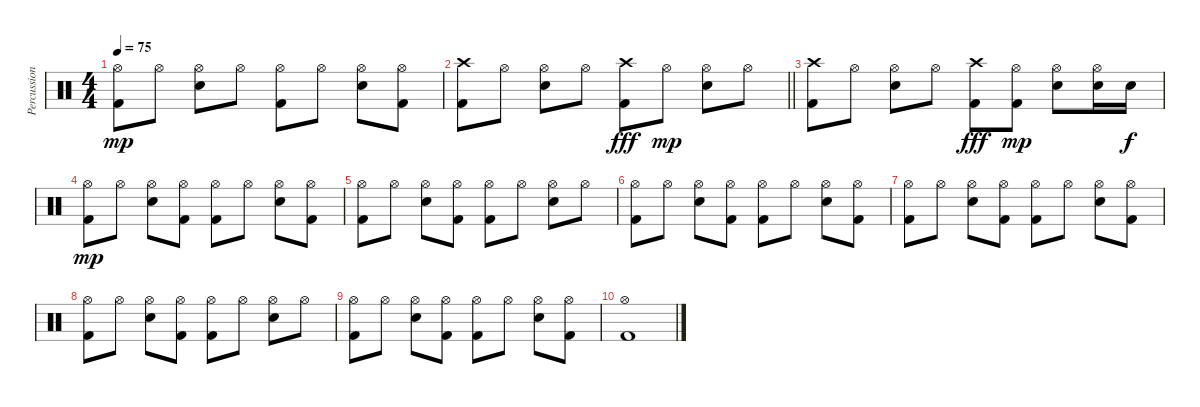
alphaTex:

\track ("Percussion" "Percussion") {instrument percussion}
\staff {score}
\articulation defaults
\ts (4 4)
\tempo 75
\clef neutral
\ks c
("Kick (hit) 2" "Hi-Hat (open)").8{dy mp} "Hi-Hat (open)".8 ("Electric Snare (hit)" "Hi-Hat (open)").8 "Hi-Hat (open)".8 ("Kick (hit) 2" "Hi-Hat (open)").8 "Hi-Hat (open)".8 ("Electric Snare (hit)" "Hi-Hat (open)").8 ("Kick (hit) 2" "Hi-Hat (open)").8 |
\barLineRight lightlight
("Kick (hit) 2" "Crash high (hit)").8 "Hi-Hat (open)".8 ("Electric Snare (hit)" "Hi-Hat (open)").8 "Hi-Hat (open)".8 ("Kick (hit) 2" "Crash high (hit)").8{dy fff} "Hi-Hat (open)".8{dy mp} ("Electric Snare (hit)" "Hi-Hat (open)").8 "Hi-Hat (open)".8 |
("Kick (hit) 2" "Crash high (hit)").8 "Hi-Hat (open)".8 ("Electric Snare (hit)" "Hi-Hat (open)").8 "Hi-Hat (open)".8 ("Kick (hit) 2" "Crash high (hit)").8{dy fff} ("Kick (hit) 2" "Hi-Hat (open)").8{dy mp} ("Electric Snare (hit)" "Hi-Hat (open)").8 ("Electric Snare (hit)" "Hi-Hat (open)").16 "Electric Snare (hit)".16{dy f} |
("Kick (hit) 2" "Hi-Hat (open)").8{dy mp} "Hi-Hat (open)".8 ("Electric Snare (hit)" "Hi-Hat (open)").8 ("Kick (hit) 2" "Hi-Hat (open)").8 ("Kick (hit) 2" "Hi-Hat (open)").8 "Hi-Hat (open)".8 ("Electric Snare (hit)" "Hi-Hat (open)").8 ("Kick (hit) 2" "Hi-Hat (open)").8 |
("Kick (hit) 2" "Hi-Hat (open)").8 "Hi-Hat (open)".8 ("Electric Snare (hit)" "Hi-Hat (open)").8 ("Kick (hit) 2" "Hi-Hat (open)").8 ("Kick (hit) 2" "Hi-Hat (open)").8 "Hi-Hat (open)".8 ("Electric Snare (hit)" "Hi-Hat (open)").8 "Hi-Hat (open)".8 |
("Kick (hit) 2" "Hi-Hat (open)").8 "Hi-Hat (open)".8 ("Electric Snare (hit)" "Hi-Hat (open)").8 ("Kick (hit) 2" "Hi-Hat (open)").8 ("Kick (hit) 2" "Hi-Hat (open)").8 "Hi-Hat (open)".8 ("Electric Snare (hit)" "Hi-Hat (open)").8 ("Kick (hit) 2" "Hi-Hat (open)").8 |
("Kick (hit) 2" "Hi-Hat (open)").8 "Hi-Hat (open)".8 ("Electric Snare (hit)" "Hi-Hat (open)").8 ("Kick (hit) 2" "Hi-Hat (open)").8 ("Kick (hit) 2" "Hi-Hat (open)").8 "Hi-Hat (open)".8 ("Electric Snare (hit)" "Hi-Hat (open)").8 ("Kick (hit) 2" "Hi-Hat (open)").8 |
("Kick (hit) 2" "Hi-Hat (open)").8 "Hi-Hat (open)".8 ("Electric Snare (hit)" "Hi-Hat (open)").8 ("Kick (hit) 2" "Hi-Hat (open)").8 ("Kick (hit) 2" "Hi-Hat (open)").8 "Hi-Hat (open)".8 ("Electric Snare (hit)" "Hi-Hat (open)").8 "Hi-Hat (open)".8 |
("Kick (hit) 2" "Hi-Hat (open)").8 "Hi-Hat (open)".8 ("Electric Snare (hit)" "Hi-Hat (open)").8 ("Kick (hit) 2" "Hi-Hat (open)").8 ("Kick (hit) 2" "Hi-Hat (open)").8 "Hi-Hat (open)".8 ("Electric Snare (hit)" "Hi-Hat (open)").8 ("Kick (hit) 2" "Hi-Hat (open)").8 |
("Kick (hit) 2" "Hi-Hat (open)").1
